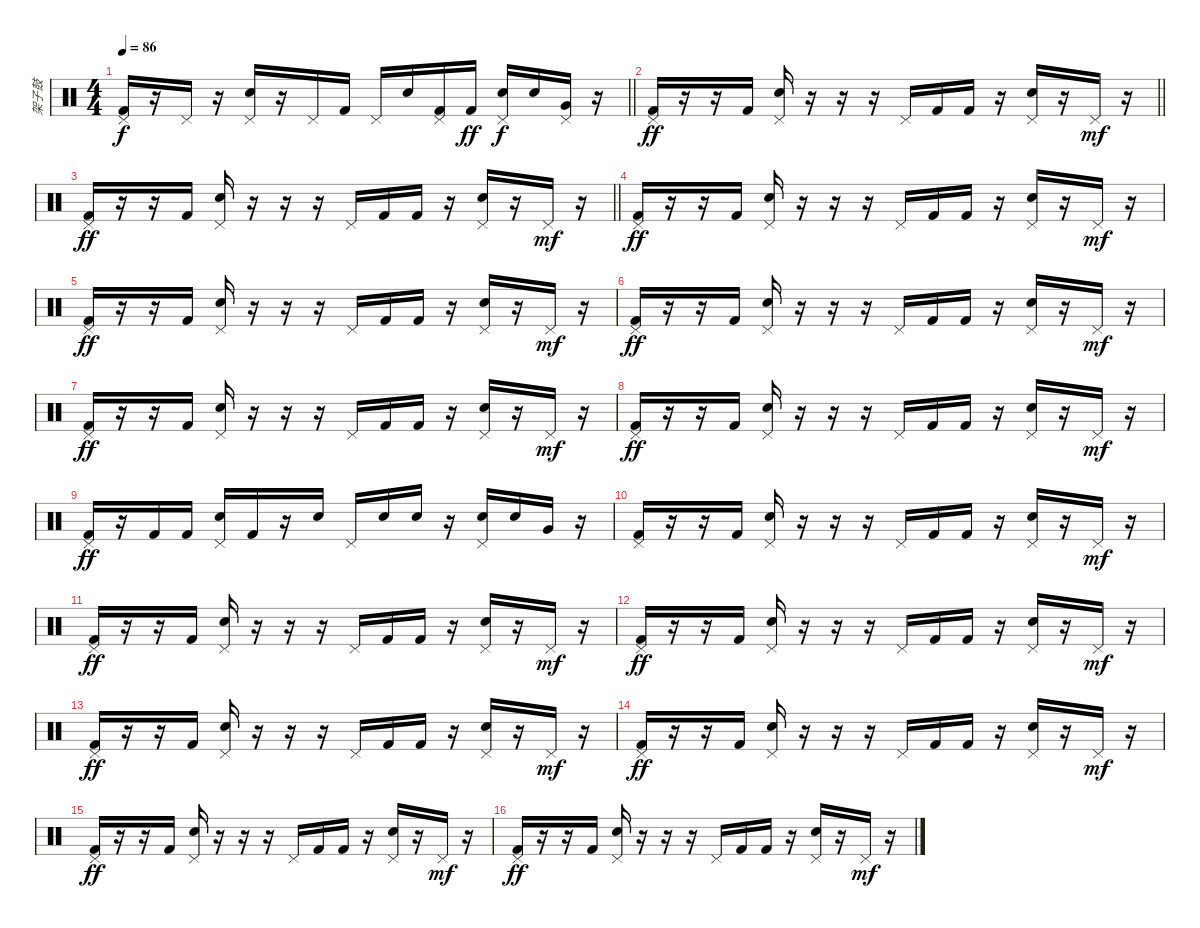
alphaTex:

\track ("架子鼓" "架子鼓") {instrument percussion}
\staff {score}
\articulation defaults
\ts (4 4)
\tempo 86
\clef neutral
\barLineRight lightlight
\ks c
("Pedal Hi-Hat (hit)" "Kick (hit) 2").16{dy f} r.16 "Pedal Hi-Hat (hit)".16 r.16 ("Pedal Hi-Hat (hit)" "Snare (hit) 2").16 r.16 "Pedal Hi-Hat (hit)".16 "Kick (hit) 2".16 "Pedal Hi-Hat (hit)".16 "Snare (hit) 2".16 ("Pedal Hi-Hat (hit)" "Kick (hit) 2").16 "Kick (hit) 2".16{dy ff} ("Pedal Hi-Hat (hit)" "Snare (hit) 2").16{dy f} "Snare (hit) 2".16 ("Pedal Hi-Hat (hit)" "Very Low Tom (hit)").16 r.16 |
\section ("" "")
\barLineRight lightlight
("Pedal Hi-Hat (hit)" "Kick (hit) 2").16{dy ff} r.16 r.16 "Kick (hit) 2".16 ("Pedal Hi-Hat (hit)" "Snare (hit) 2").16 r.16 r.16 r.16 "Pedal Hi-Hat (hit)".16 "Kick (hit) 2".16 "Kick (hit) 2".16 r.16 ("Pedal Hi-Hat (hit)" "Snare (hit) 2").16 r.16 "Pedal Hi-Hat (hit)".16{dy mf} r.16 |
\barLineRight lightlight
("Pedal Hi-Hat (hit)" "Kick (hit) 2").16{dy ff} r.16 r.16 "Kick (hit) 2".16 ("Pedal Hi-Hat (hit)" "Snare (hit) 2").16 r.16 r.16 r.16 "Pedal Hi-Hat (hit)".16 "Kick (hit) 2".16 "Kick (hit) 2".16 r.16 ("Pedal Hi-Hat (hit)" "Snare (hit) 2").16 r.16 "Pedal Hi-Hat (hit)".16{dy mf} r.16 |
("Pedal Hi-Hat (hit)" "Kick (hit) 2").16{dy ff} r.16 r.16 "Kick (hit) 2".16 ("Pedal Hi-Hat (hit)" "Snare (hit) 2").16 r.16 r.16 r.16 "Pedal Hi-Hat (hit)".16 "Kick (hit) 2".16 "Kick (hit) 2".16 r.16 ("Pedal Hi-Hat (hit)" "Snare (hit) 2").16 r.16 "Pedal Hi-Hat (hit)".16{dy mf} r.16 |
("Pedal Hi-Hat (hit)" "Kick (hit) 2").16{dy ff} r.16 r.16 "Kick (hit) 2".16 ("Pedal Hi-Hat (hit)" "Snare (hit) 2").16 r.16 r.16 r.16 "Pedal Hi-Hat (hit)".16 "Kick (hit) 2".16 "Kick (hit) 2".16 r.16 ("Pedal Hi-Hat (hit)" "Snare (hit) 2").16 r.16 "Pedal Hi-Hat (hit)".16{dy mf} r.16 |
("Pedal Hi-Hat (hit)" "Kick (hit) 2").16{dy ff} r.16 r.16 "Kick (hit) 2".16 ("Pedal Hi-Hat (hit)" "Snare (hit) 2").16 r.16 r.16 r.16 "Pedal Hi-Hat (hit)".16 "Kick (hit) 2".16 "Kick (hit) 2".16 r.16 ("Pedal Hi-Hat (hit)" "Snare (hit) 2").16 r.16 "Pedal Hi-Hat (hit)".16{dy mf} r.16 |
("Pedal Hi-Hat (hit)" "Kick (hit) 2").16{dy ff} r.16 r.16 "Kick (hit) 2".16 ("Pedal Hi-Hat (hit)" "Snare (hit) 2").16 r.16 r.16 r.16 "Pedal Hi-Hat (hit)".16 "Kick (hit) 2".16 "Kick (hit) 2".16 r.16 ("Pedal Hi-Hat (hit)" "Snare (hit) 2").16 r.16 "Pedal Hi-Hat (hit)".16{dy mf} r.16 |
("Pedal Hi-Hat (hit)" "Kick (hit) 2").16{dy ff} r.16 r.16 "Kick (hit) 2".16 ("Pedal Hi-Hat (hit)" "Snare (hit) 2").16 r.16 r.16 r.16 "Pedal Hi-Hat (hit)".16 "Kick (hit) 2".16 "Kick (hit) 2".16 r.16 ("Pedal Hi-Hat (hit)" "Snare (hit) 2").16 r.16 "Pedal Hi-Hat (hit)".16{dy mf} r.16 |
("Pedal Hi-Hat (hit)" "Kick (hit) 2").16{dy ff} r.16 "Kick (hit) 2".16 "Kick (hit) 2".16 ("Pedal Hi-Hat (hit)" "Snare (hit) 2").16 "Kick (hit) 2".16 r.16 "Snare (hit) 2".16 "Pedal Hi-Hat (hit)".16 "Snare (hit) 2".16 "Snare (hit) 2".16 r.16 ("Pedal Hi-Hat (hit)" "Snare (hit) 2").16 "Snare (hit) 2".16 "Very Low Tom (hit)".16 r.16 |
("Pedal Hi-Hat (hit)" "Kick (hit) 2").16 r.16 r.16 "Kick (hit) 2".16 ("Pedal Hi-Hat (hit)" "Snare (hit) 2").16 r.16 r.16 r.16 "Pedal Hi-Hat (hit)".16 "Kick (hit) 2".16 "Kick (hit) 2".16 r.16 ("Pedal Hi-Hat (hit)" "Snare (hit) 2").16 r.16 "Pedal Hi-Hat (hit)".16{dy mf} r.16 |
("Pedal Hi-Hat (hit)" "Kick (hit) 2").16{dy ff} r.16 r.16 "Kick (hit) 2".16 ("Pedal Hi-Hat (hit)" "Snare (hit) 2").16 r.16 r.16 r.16 "Pedal Hi-Hat (hit)".16 "Kick (hit) 2".16 "Kick (hit) 2".16 r.16 ("Pedal Hi-Hat (hit)" "Snare (hit) 2").16 r.16 "Pedal Hi-Hat (hit)".16{dy mf} r.16 |
("Pedal Hi-Hat (hit)" "Kick (hit) 2").16{dy ff} r.16 r.16 "Kick (hit) 2".16 ("Pedal Hi-Hat (hit)" "Snare (hit) 2").16 r.16 r.16 r.16 "Pedal Hi-Hat (hit)".16 "Kick (hit) 2".16 "Kick (hit) 2".16 r.16 ("Pedal Hi-Hat (hit)" "Snare (hit) 2").16 r.16 "Pedal Hi-Hat (hit)".16{dy mf} r.16 |
("Pedal Hi-Hat (hit)" "Kick (hit) 2").16{dy ff} r.16 r.16 "Kick (hit) 2".16 ("Pedal Hi-Hat (hit)" "Snare (hit) 2").16 r.16 r.16 r.16 "Pedal Hi-Hat (hit)".16 "Kick (hit) 2".16 "Kick (hit) 2".16 r.16 ("Pedal Hi-Hat (hit)" "Snare (hit) 2").16 r.16 "Pedal Hi-Hat (hit)".16{dy mf} r.16 |
("Pedal Hi-Hat (hit)" "Kick (hit) 2").16{dy ff} r.16 r.16 "Kick (hit) 2".16 ("Pedal Hi-Hat (hit)" "Snare (hit) 2").16 r.16 r.16 r.16 "Pedal Hi-Hat (hit)".16 "Kick (hit) 2".16 "Kick (hit) 2".16 r.16 ("Pedal Hi-Hat (hit)" "Snare (hit) 2").16 r.16 "Pedal Hi-Hat (hit)".16{dy mf} r.16 |
("Pedal Hi-Hat (hit)" "Kick (hit) 2").16{dy ff} r.16 r.16 "Kick (hit) 2".16 ("Pedal Hi-Hat (hit)" "Snare (hit) 2").16 r.16 r.16 r.16 "Pedal Hi-Hat (hit)".16 "Kick (hit) 2".16 "Kick (hit) 2".16 r.16 ("Pedal Hi-Hat (hit)" "Snare (hit) 2").16 r.16 "Pedal Hi-Hat (hit)".16{dy mf} r.16 |
("Pedal Hi-Hat (hit)" "Kick (hit) 2").16{dy ff} r.16 r.16 "Kick (hit) 2".16 ("Pedal Hi-Hat (hit)" "Snare (hit) 2").16 r.16 r.16 r.16 "Pedal Hi-Hat (hit)".16 "Kick (hit) 2".16 "Kick (hit) 2".16 r.16 ("Pedal Hi-Hat (hit)" "Snare (hit) 2").16 r.16 "Pedal Hi-Hat (hit)".16{dy mf} r.16
